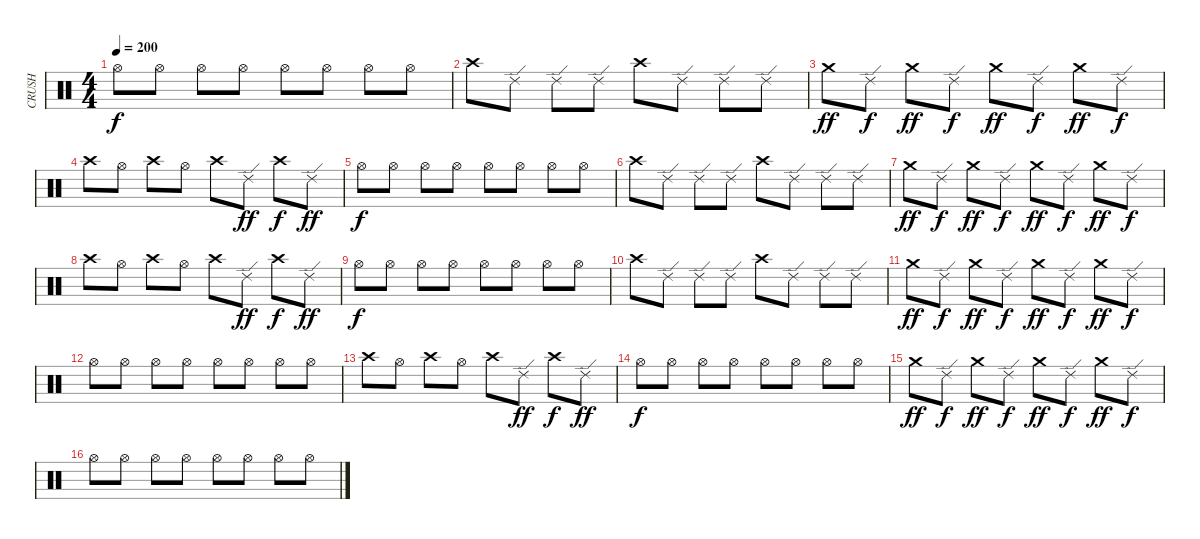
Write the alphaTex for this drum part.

\track ("CRUSH" "CRUSH") {instrument percussion}
\staff {score}
\articulation defaults
\ts (4 4)
\tempo 200
\clef neutral
\ks c "Hi-Hat (open)".8{dy f} "Hi-Hat (open)".8 "Hi-Hat (open)".8 "Hi-Hat (open)".8 "Hi-Hat (open)".8 "Hi-Hat (open)".8 "Hi-Hat (open)".8 "Hi-Hat (open)".8
|
"Crash high (hit)".8 "Ride (edge) 2".8 "Ride (edge) 2".8 "Ride (edge) 2".8 "Crash high (hit)".8 "Ride (edge) 2".8 "Ride (edge) 2".8 "Ride (edge) 2".8 |
"Crash medium (hit)".8{dy ff} "Ride (edge) 2".8{dy f} "Crash medium (hit)".8{dy ff} "Ride (edge) 2".8{dy f} "Crash medium (hit)".8{dy ff} "Ride (edge) 2".8{dy f} "Crash medium (hit)".8{dy ff} "Ride (edge) 2".8{dy f} |
"Crash high (hit)".8 "Hi-Hat (open)".8 "Crash high (hit)".8 "Hi-Hat (open)".8 "Crash high (hit)".8 "Ride (edge) 2".8{dy ff} "Crash high (hit)".8{dy f} "Ride (edge) 2".8{dy ff} |
"Hi-Hat (open)".8{dy f} "Hi-Hat (open)".8 "Hi-Hat (open)".8 "Hi-Hat (open)".8 "Hi-Hat (open)".8 "Hi-Hat (open)".8 "Hi-Hat (open)".8 "Hi-Hat (open)".8 |
"Crash high (hit)".8 "Ride (edge) 2".8 "Ride (edge) 2".8 "Ride (edge) 2".8 "Crash high (hit)".8 "Ride (edge) 2".8 "Ride (edge) 2".8 "Ride (edge) 2".8 |
"Crash medium (hit)".8{dy ff} "Ride (edge) 2".8{dy f} "Crash medium (hit)".8{dy ff} "Ride (edge) 2".8{dy f} "Crash medium (hit)".8{dy ff} "Ride (edge) 2".8{dy f} "Crash medium (hit)".8{dy ff} "Ride (edge) 2".8{dy f} |
"Crash high (hit)".8 "Hi-Hat (open)".8 "Crash high (hit)".8 "Hi-Hat (open)".8 "Crash high (hit)".8 "Ride (edge) 2".8{dy ff} "Crash high (hit)".8{dy f} "Ride (edge) 2".8{dy ff} |
"Hi-Hat (open)".8{dy f} "Hi-Hat (open)".8 "Hi-Hat (open)".8 "Hi-Hat (open)".8 "Hi-Hat (open)".8 "Hi-Hat (open)".8 "Hi-Hat (open)".8 "Hi-Hat (open)".8 |
"Crash high (hit)".8 "Ride (edge) 2".8 "Ride (edge) 2".8 "Ride (edge) 2".8 "Crash high (hit)".8 "Ride (edge) 2".8 "Ride (edge) 2".8 "Ride (edge) 2".8 |
"Crash medium (hit)".8{dy ff} "Ride (edge) 2".8{dy f} "Crash medium (hit)".8{dy ff} "Ride (edge) 2".8{dy f} "Crash medium (hit)".8{dy ff} "Ride (edge) 2".8{dy f} "Crash medium (hit)".8{dy ff} "Ride (edge) 2".8{dy f} |
"Hi-Hat (open)".8 "Hi-Hat (open)".8 "Hi-Hat (open)".8 "Hi-Hat (open)".8 "Hi-Hat (open)".8 "Hi-Hat (open)".8 "Hi-Hat (open)".8 "Hi-Hat (open)".8 |
"Crash high (hit)".8 "Hi-Hat (open)".8 "Crash high (hit)".8 "Hi-Hat (open)".8 "Crash high (hit)".8 "Ride (edge) 2".8{dy ff} "Crash high (hit)".8{dy f} "Ride (edge) 2".8{dy ff} |
"Hi-Hat (open)".8{dy f} "Hi-Hat (open)".8 "Hi-Hat (open)".8 "Hi-Hat (open)".8 "Hi-Hat (open)".8 "Hi-Hat (open)".8 "Hi-Hat (open)".8 "Hi-Hat (open)".8 |
"Crash medium (hit)".8{dy ff} "Ride (edge) 2".8{dy f} "Crash medium (hit)".8{dy ff} "Ride (edge) 2".8{dy f} "Crash medium (hit)".8{dy ff} "Ride (edge) 2".8{dy f} "Crash medium (hit)".8{dy ff} "Ride (edge) 2".8{dy f} |
"Hi-Hat (open)".8 "Hi-Hat (open)".8 "Hi-Hat (open)".8 "Hi-Hat (open)".8 "Hi-Hat (open)".8 "Hi-Hat (open)".8 "Hi-Hat (open)".8 "Hi-Hat (open)".8
